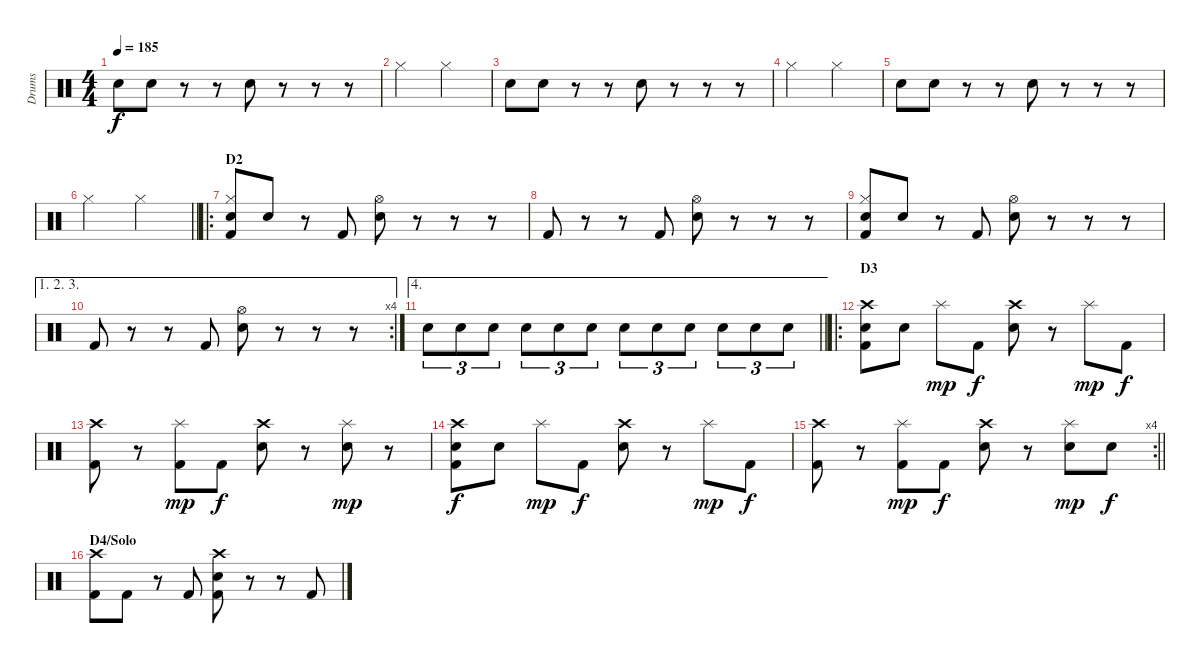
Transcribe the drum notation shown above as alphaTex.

\track ("Drums" "Drums") {instrument percussion}
\staff {score}
\articulation defaults
\ts (4 4)
\tempo 185
\clef neutral
\ks c "Snare (hit) 2".8{dy f} "Snare (hit) 2".8
r.8 r.8 "Snare (hit) 2".8 r.8 r.8 r.8 |
"Hi-Hat (closed)".2 "Hi-Hat (closed)".2 |
"Snare (hit) 2".8 "Snare (hit) 2".8 r.8 r.8 "Snare (hit) 2".8 r.8 r.8 r.8 |
"Hi-Hat (closed)".2 "Hi-Hat (closed)".2 |
"Snare (hit) 2".8 "Snare (hit) 2".8 r.8 r.8 "Snare (hit) 2".8 r.8 r.8 r.8 |
\barLineRight lightlight "Hi-Hat (closed)".2 "Hi-Hat (closed)".2
|
\ro
\section ("" "D2")
("Hi-Hat (closed)" "Snare (hit) 2" "Kick (hit) 2").8 "Snare (hit) 2".8 r.8 "Kick (hit) 2".8 ("Hi-Hat (open)" "Snare (hit) 2").8 r.8 r.8 r.8 |
"Kick (hit) 2".8 r.8 r.8 "Kick (hit) 2".8 ("Hi-Hat (open)" "Snare (hit) 2").8 r.8 r.8 r.8 |
("Hi-Hat (closed)" "Snare (hit) 2" "Kick (hit) 2").8 "Snare (hit) 2".8 r.8 "Kick (hit) 2".8 ("Hi-Hat (open)" "Snare (hit) 2").8 r.8 r.8 r.8 |
\ae (1 2 3)
\rc 4 "Kick (hit) 2".8
r.8 r.8 "Kick (hit) 2".8 ("Hi-Hat (open)" "Snare (hit) 2").8 r.8 r.8 r.8 |
\ae 4
\barLineRight lightlight "Snare (hit) 2".8{tu (3 2)} "Snare (hit) 2".8{tu (3 2)} "Snare (hit) 2".8{tu (3 2)} "Snare (hit) 2".8{tu (3 2)} "Snare (hit) 2".8{tu (3 2)} "Snare (hit) 2".8{tu (3 2)} "Snare (hit) 2".8{tu (3 2)} "Snare (hit) 2".8{tu (3 2)} "Snare (hit) 2".8{tu (3 2)} "Snare (hit) 2".8{tu (3 2)} "Snare (hit) 2".8{tu (3 2)} "Snare (hit) 2".8{tu (3 2)}
|
\ro
\section ("" "D3")
("Crash high (hit)" "Snare (hit) 2" "Kick (hit) 2").8 "Snare (hit) 2".8 "Splash (hit)".8{dy mp} "Kick (hit) 2".8{dy f} ("Crash high (hit)" "Snare (hit) 2").8 r.8 "Splash (hit)".8{dy mp} "Kick (hit) 2".8{dy f} |
("Crash high (hit)" "Kick (hit) 2").8 r.8 ("Splash (hit)" "Kick (hit) 2").8{dy mp} "Kick (hit) 2".8{dy f} ("Crash high (hit)" "Snare (hit) 2").8 r.8 ("Splash (hit)" "Snare (hit) 2").8{dy mp} r.8 |
("Crash high (hit)" "Snare (hit) 2" "Kick (hit) 2").8{dy f} "Snare (hit) 2".8 "Splash (hit)".8{dy mp} "Kick (hit) 2".8{dy f} ("Crash high (hit)" "Snare (hit) 2").8 r.8 "Splash (hit)".8{dy mp} "Kick (hit) 2".8{dy f} |
\rc 4
\barLineRight lightlight
("Crash high (hit)" "Kick (hit) 2").8 r.8 ("Splash (hit)" "Kick (hit) 2").8{dy mp} "Kick (hit) 2".8{dy f} ("Crash high (hit)" "Snare (hit) 2").8 r.8 ("Splash (hit)" "Snare (hit) 2").8{dy mp} "Snare (hit) 2".8{dy f} |
\section ("" "D4/Solo")
("Crash high (hit)" "Kick (hit) 2").8 "Kick (hit) 2".8 r.8 "Kick (hit) 2".8 ("Crash high (hit)" "Snare (hit) 2" "Kick (hit) 2").8 r.8 r.8 "Kick (hit) 2".8
